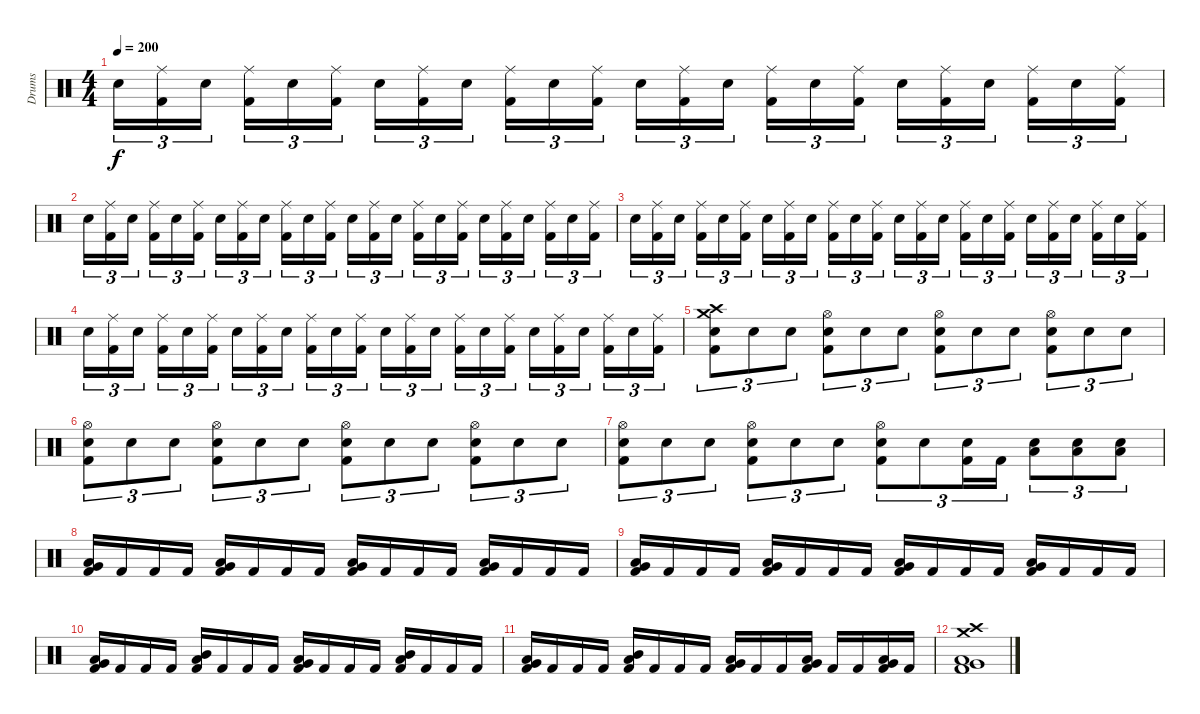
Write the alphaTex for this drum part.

\track ("Drums" "Drums") {instrument percussion}
\staff {score}
\articulation defaults
\ts (4 4)
\tempo 200
\clef neutral
\ks c "Electric Snare (hit)".16{tu (3 2) dy f}
("Ride (middle)" "Kick (hit) 2").16{tu (3 2)} "Electric Snare (hit)".16{tu (3 2) beam splitsecondary} ("Ride (middle)" "Kick (hit) 2").16{tu (3 2)} "Electric Snare (hit)".16{tu (3 2)} ("Ride (middle)" "Kick (hit) 2").16{tu (3 2)} "Electric Snare (hit)".16{tu (3 2)} ("Ride (middle)" "Kick (hit) 2").16{tu (3 2)} "Electric Snare (hit)".16{tu (3 2) beam splitsecondary} ("Ride (middle)" "Kick (hit) 2").16{tu (3 2)} "Electric Snare (hit)".16{tu (3 2)} ("Ride (middle)" "Kick (hit) 2").16{tu (3 2)} "Electric Snare (hit)".16{tu (3 2)} ("Ride (middle)" "Kick (hit) 2").16{tu (3 2)} "Electric Snare (hit)".16{tu (3 2) beam splitsecondary} ("Ride (middle)" "Kick (hit) 2").16{tu (3 2)} "Electric Snare (hit)".16{tu (3 2)} ("Ride (middle)" "Kick (hit) 2").16{tu (3 2)} "Electric Snare (hit)".16{tu (3 2)} ("Ride (middle)" "Kick (hit) 2").16{tu (3 2)} "Electric Snare (hit)".16{tu (3 2) beam splitsecondary} ("Ride (middle)" "Kick (hit) 2").16{tu (3 2)} "Electric Snare (hit)".16{tu (3 2)} ("Ride (middle)" "Kick (hit) 2").16{tu (3 2)} |
"Electric Snare (hit)".16{tu (3 2)} ("Ride (middle)" "Kick (hit) 2").16{tu (3 2)} "Electric Snare (hit)".16{tu (3 2) beam splitsecondary} ("Ride (middle)" "Kick (hit) 2").16{tu (3 2)} "Electric Snare (hit)".16{tu (3 2)} ("Ride (middle)" "Kick (hit) 2").16{tu (3 2)} "Electric Snare (hit)".16{tu (3 2)} ("Ride (middle)" "Kick (hit) 2").16{tu (3 2)} "Electric Snare (hit)".16{tu (3 2) beam splitsecondary} ("Ride (middle)" "Kick (hit) 2").16{tu (3 2)} "Electric Snare (hit)".16{tu (3 2)} ("Ride (middle)" "Kick (hit) 2").16{tu (3 2)} "Electric Snare (hit)".16{tu (3 2)} ("Ride (middle)" "Kick (hit) 2").16{tu (3 2)} "Electric Snare (hit)".16{tu (3 2) beam splitsecondary} ("Ride (middle)" "Kick (hit) 2").16{tu (3 2)} "Electric Snare (hit)".16{tu (3 2)} ("Ride (middle)" "Kick (hit) 2").16{tu (3 2)} "Electric Snare (hit)".16{tu (3 2)} ("Ride (middle)" "Kick (hit) 2").16{tu (3 2)} "Electric Snare (hit)".16{tu (3 2) beam splitsecondary} ("Ride (middle)" "Kick (hit) 2").16{tu (3 2)} "Electric Snare (hit)".16{tu (3 2)} ("Ride (middle)" "Kick (hit) 2").16{tu (3 2)} |
"Electric Snare (hit)".16{tu (3 2)} ("Ride (middle)" "Kick (hit) 2").16{tu (3 2)} "Electric Snare (hit)".16{tu (3 2) beam splitsecondary} ("Ride (middle)" "Kick (hit) 2").16{tu (3 2)} "Electric Snare (hit)".16{tu (3 2)} ("Ride (middle)" "Kick (hit) 2").16{tu (3 2)} "Electric Snare (hit)".16{tu (3 2)} ("Ride (middle)" "Kick (hit) 2").16{tu (3 2)} "Electric Snare (hit)".16{tu (3 2) beam splitsecondary} ("Ride (middle)" "Kick (hit) 2").16{tu (3 2)} "Electric Snare (hit)".16{tu (3 2)} ("Ride (middle)" "Kick (hit) 2").16{tu (3 2)} "Electric Snare (hit)".16{tu (3 2)} ("Ride (middle)" "Kick (hit) 2").16{tu (3 2)} "Electric Snare (hit)".16{tu (3 2) beam splitsecondary} ("Ride (middle)" "Kick (hit) 2").16{tu (3 2)} "Electric Snare (hit)".16{tu (3 2)} ("Ride (middle)" "Kick (hit) 2").16{tu (3 2)} "Electric Snare (hit)".16{tu (3 2)} ("Ride (middle)" "Kick (hit) 2").16{tu (3 2)} "Electric Snare (hit)".16{tu (3 2) beam splitsecondary} ("Ride (middle)" "Kick (hit) 2").16{tu (3 2)} "Electric Snare (hit)".16{tu (3 2)} ("Ride (middle)" "Kick (hit) 2").16{tu (3 2)} |
"Electric Snare (hit)".16{tu (3 2)} ("Ride (middle)" "Kick (hit) 2").16{tu (3 2)} "Electric Snare (hit)".16{tu (3 2) beam splitsecondary} ("Ride (middle)" "Kick (hit) 2").16{tu (3 2)} "Electric Snare (hit)".16{tu (3 2)} ("Ride (middle)" "Kick (hit) 2").16{tu (3 2)} "Electric Snare (hit)".16{tu (3 2)} ("Ride (middle)" "Kick (hit) 2").16{tu (3 2)} "Electric Snare (hit)".16{tu (3 2) beam splitsecondary} ("Ride (middle)" "Kick (hit) 2").16{tu (3 2)} "Electric Snare (hit)".16{tu (3 2)} ("Ride (middle)" "Kick (hit) 2").16{tu (3 2)} "Electric Snare (hit)".16{tu (3 2)} ("Ride (middle)" "Kick (hit) 2").16{tu (3 2)} "Electric Snare (hit)".16{tu (3 2) beam splitsecondary} ("Ride (middle)" "Kick (hit) 2").16{tu (3 2)} "Electric Snare (hit)".16{tu (3 2)} ("Ride (middle)" "Kick (hit) 2").16{tu (3 2)} "Electric Snare (hit)".16{tu (3 2)} ("Ride (middle)" "Kick (hit) 2").16{tu (3 2)} "Electric Snare (hit)".16{tu (3 2) beam splitsecondary} ("Ride (middle)" "Kick (hit) 2").16{tu (3 2)} "Electric Snare (hit)".16{tu (3 2)} ("Ride (middle)" "Kick (hit) 2").16{tu (3 2)} |
("Crash high (hit)" "Crash medium (hit)" "Electric Snare (hit)" "Kick (hit) 2").8{tu (3 2)} "Electric Snare (hit)".8{tu (3 2)} "Electric Snare (hit)".8{tu (3 2)} ("Hi-Hat (open)" "Electric Snare (hit)" "Kick (hit) 2").8{tu (3 2)} "Electric Snare (hit)".8{tu (3 2)} "Electric Snare (hit)".8{tu (3 2)} ("Hi-Hat (open)" "Electric Snare (hit)" "Kick (hit) 2").8{tu (3 2)} "Electric Snare (hit)".8{tu (3 2)} "Electric Snare (hit)".8{tu (3 2)} ("Hi-Hat (open)" "Electric Snare (hit)" "Kick (hit) 2").8{tu (3 2)} "Electric Snare (hit)".8{tu (3 2)} "Electric Snare (hit)".8{tu (3 2)} |
("Hi-Hat (open)" "Electric Snare (hit)" "Kick (hit) 2").8{tu (3 2)} "Electric Snare (hit)".8{tu (3 2)} "Electric Snare (hit)".8{tu (3 2)} ("Hi-Hat (open)" "Electric Snare (hit)" "Kick (hit) 2").8{tu (3 2)} "Electric Snare (hit)".8{tu (3 2)} "Electric Snare (hit)".8{tu (3 2)} ("Hi-Hat (open)" "Electric Snare (hit)" "Kick (hit) 2").8{tu (3 2)} "Electric Snare (hit)".8{tu (3 2)} "Electric Snare (hit)".8{tu (3 2)} ("Hi-Hat (open)" "Electric Snare (hit)" "Kick (hit) 2").8{tu (3 2)} "Electric Snare (hit)".8{tu (3 2)} "Electric Snare (hit)".8{tu (3 2)} |
("Hi-Hat (open)" "Electric Snare (hit)" "Kick (hit) 2").8{tu (3 2)} "Electric Snare (hit)".8{tu (3 2)} "Electric Snare (hit)".8{tu (3 2)} ("Hi-Hat (open)" "Electric Snare (hit)" "Kick (hit) 2").8{tu (3 2)} "Electric Snare (hit)".8{tu (3 2)} "Electric Snare (hit)".8{tu (3 2)} ("Hi-Hat (open)" "Electric Snare (hit)" "Kick (hit) 2").8{tu (3 2)} "Electric Snare (hit)".8{tu (3 2)} ("Electric Snare (hit)" "Kick (hit) 2").16{tu (3 2)} "Kick (hit) 2".16{tu (3 2)} ("Low Floor Tom (hit)" "Electric Snare (hit)").8{tu (3 2)} ("Low Floor Tom (hit)" "Electric Snare (hit)").8{tu (3 2)} ("Low Floor Tom (hit)" "Electric Snare (hit)").8{tu (3 2)} |
("Very Low Tom (hit)" "Low Floor Tom (hit)" "Kick (hit) 2").16 "Kick (hit) 2".16 "Kick (hit) 2".16 "Kick (hit) 2".16 ("Low Tom (hit)" "Very Low Tom (hit)" "Kick (hit) 2").16 "Kick (hit) 2".16 "Kick (hit) 2".16 "Kick (hit) 2".16 ("Very Low Tom (hit)" "Low Floor Tom (hit)" "Kick (hit) 2").16 "Kick (hit) 2".16 "Kick (hit) 2".16 "Kick (hit) 2".16 ("Low Tom (hit)" "Very Low Tom (hit)" "Kick (hit) 2").16 "Kick (hit) 2".16 "Kick (hit) 2".16 "Kick (hit) 2".16 |
("Very Low Tom (hit)" "Low Floor Tom (hit)" "Kick (hit) 2").16 "Kick (hit) 2".16 "Kick (hit) 2".16 "Kick (hit) 2".16 ("Low Tom (hit)" "Very Low Tom (hit)" "Kick (hit) 2").16 "Kick (hit) 2".16 "Kick (hit) 2".16 "Kick (hit) 2".16 ("Very Low Tom (hit)" "Low Floor Tom (hit)" "Kick (hit) 2").16 "Kick (hit) 2".16 "Kick (hit) 2".16 "Kick (hit) 2".16 ("Low Tom (hit)" "Very Low Tom (hit)" "Kick (hit) 2").16 "Kick (hit) 2".16 "Kick (hit) 2".16 "Kick (hit) 2".16 |
("Low Tom (hit)" "Very Low Tom (hit)" "Kick (hit) 2").16 "Kick (hit) 2".16 "Kick (hit) 2".16 "Kick (hit) 2".16 ("Mid Tom (hit)" "Low Tom (hit)" "Kick (hit) 2").16 "Kick (hit) 2".16 "Kick (hit) 2".16 "Kick (hit) 2".16 ("Low Tom (hit)" "Very Low Tom (hit)" "Kick (hit) 2").16 "Kick (hit) 2".16 "Kick (hit) 2".16 "Kick (hit) 2".16 ("Mid Tom (hit)" "Low Tom (hit)" "Kick (hit) 2").16 "Kick (hit) 2".16 "Kick (hit) 2".16 "Kick (hit) 2".16 |
("Low Tom (hit)" "Very Low Tom (hit)" "Kick (hit) 2").16 "Kick (hit) 2".16 "Kick (hit) 2".16 "Kick (hit) 2".16 ("Mid Tom (hit)" "Low Tom (hit)" "Kick (hit) 2").16 "Kick (hit) 2".16 "Kick (hit) 2".16 "Kick (hit) 2".16 ("Low Tom (hit)" "Very Low Tom (hit)" "Kick (hit) 2").16 "Kick (hit) 2".16 "Kick (hit) 2".16 ("Low Tom (hit)" "Very Low Tom (hit)" "Kick (hit) 2").16 "Kick (hit) 2".16 "Kick (hit) 2".16 ("Low Tom (hit)" "Very Low Tom (hit)" "Kick (hit) 2").16 "Kick (hit) 2".16 |
("Crash high (hit)" "Crash medium (hit)" "Very Low Tom (hit)" "Low Floor Tom (hit)" "Kick (hit) 2").1
